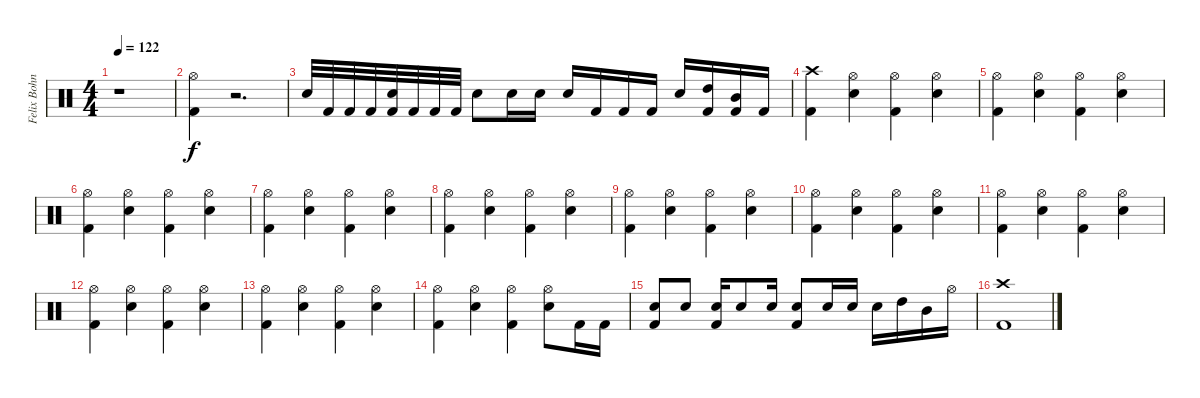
\track ("Felix Bohnke" "Felix Bohn") {instrument percussion}
\staff {score}
\articulation defaults
\ts (4 4)
\tempo 122
\clef neutral
\ks c
r.1{dy f} |
("Hi-Hat (open)" "Kick (hit) 2").4 r.2{d} |
"Snare (hit) 2".32 "Kick (hit) 2".32 "Kick (hit) 2".32 "Kick (hit) 2".32 ("Snare (hit) 2" "Kick (hit) 2").32 "Kick (hit) 2".32 "Kick (hit) 2".32 "Kick (hit) 2".32 "Snare (hit) 2".8 "Snare (hit) 2".16 "Snare (hit) 2".16 "Snare (hit) 2".16 "Kick (hit) 2".16 "Kick (hit) 2".16 "Kick (hit) 2".16 "Snare (hit) 2".16 ("High Tom (hit)" "Kick (hit) 2").16 ("Mid Tom (hit)" "Kick (hit) 2").16 "Kick (hit) 2".16 |
("Crash high (hit)" "Kick (hit) 2").4 ("Hi-Hat (open)" "Snare (hit) 2").4 ("Hi-Hat (open)" "Kick (hit) 2").4 ("Hi-Hat (open)" "Snare (hit) 2").4 |
("Hi-Hat (open)" "Kick (hit) 2").4 ("Hi-Hat (open)" "Snare (hit) 2").4 ("Hi-Hat (open)" "Kick (hit) 2").4 ("Hi-Hat (open)" "Snare (hit) 2").4 |
("Hi-Hat (open)" "Kick (hit) 2").4 ("Hi-Hat (open)" "Snare (hit) 2").4 ("Hi-Hat (open)" "Kick (hit) 2").4 ("Hi-Hat (open)" "Snare (hit) 2").4 |
("Hi-Hat (open)" "Kick (hit) 2").4 ("Hi-Hat (open)" "Snare (hit) 2").4 ("Hi-Hat (open)" "Kick (hit) 2").4 ("Hi-Hat (open)" "Snare (hit) 2").4 |
("Hi-Hat (open)" "Kick (hit) 2").4 ("Hi-Hat (open)" "Snare (hit) 2").4 ("Hi-Hat (open)" "Kick (hit) 2").4 ("Hi-Hat (open)" "Snare (hit) 2").4 |
("Hi-Hat (open)" "Kick (hit) 2").4 ("Hi-Hat (open)" "Snare (hit) 2").4 ("Hi-Hat (open)" "Kick (hit) 2").4 ("Hi-Hat (open)" "Snare (hit) 2").4 |
("Hi-Hat (open)" "Kick (hit) 2").4 ("Hi-Hat (open)" "Snare (hit) 2").4 ("Hi-Hat (open)" "Kick (hit) 2").4 ("Hi-Hat (open)" "Snare (hit) 2").4 |
("Hi-Hat (open)" "Kick (hit) 2").4 ("Hi-Hat (open)" "Snare (hit) 2").4 ("Hi-Hat (open)" "Kick (hit) 2").4 ("Hi-Hat (open)" "Snare (hit) 2").4 |
("Hi-Hat (open)" "Kick (hit) 2").4 ("Hi-Hat (open)" "Snare (hit) 2").4 ("Hi-Hat (open)" "Kick (hit) 2").4 ("Hi-Hat (open)" "Snare (hit) 2").4 |
("Hi-Hat (open)" "Kick (hit) 2").4 ("Hi-Hat (open)" "Snare (hit) 2").4 ("Hi-Hat (open)" "Kick (hit) 2").4 ("Hi-Hat (open)" "Snare (hit) 2").4 |
("Hi-Hat (open)" "Kick (hit) 2").4 ("Hi-Hat (open)" "Snare (hit) 2").4 ("Hi-Hat (open)" "Kick (hit) 2").4 ("Hi-Hat (open)" "Snare (hit) 2").8 "Kick (hit) 2".16 "Kick (hit) 2".16 |
("Snare (hit) 2" "Kick (hit) 2").8 "Snare (hit) 2".8 ("Snare (hit) 2" "Kick (hit) 2").16 "Snare (hit) 2".8 "Snare (hit) 2".16 ("Snare (hit) 2" "Kick (hit) 2").8 "Snare (hit) 2".16 "Snare (hit) 2".16 "Snare (hit) 2".16 "High Tom (hit)".16 "Mid Tom (hit)".16 "Hi-Hat (open)".16 |
("Crash high (hit)" "Kick (hit) 2").1
